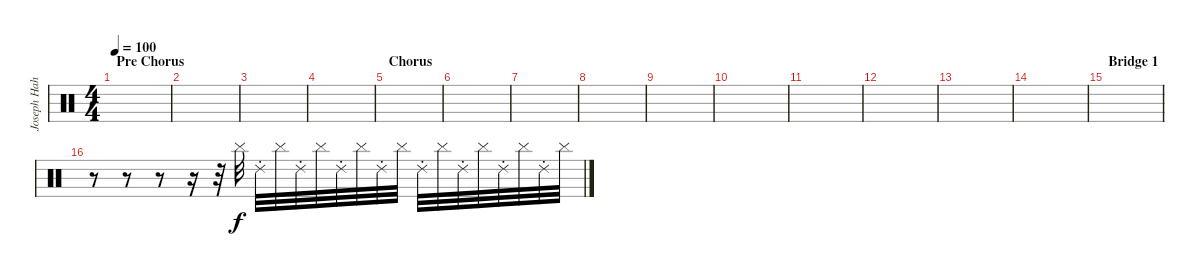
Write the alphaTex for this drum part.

\track ("Joseph Hahn (Sampler 3)" "Joseph Hah") {instrument percussion}
\staff {score}
\articulation defaults
\ts (4 4)
\section ("" "Pre Chorus")
\tempo 100
\clef neutral
\ks c
|
|
|
|
\section ("" "Chorus")
|
|
|
|
|
|
|
|
|
|
\section ("" "Bridge 1")
|
r.8 r.8 r.8 r.16 r.32 "Cymbal (hit)".32 "Ride (choke) 2".32 "Cymbal (hit)".32 "Ride (choke) 2".32 "Cymbal (hit)".32 "Ride (choke) 2".32 "Cymbal (hit)".32 "Ride (choke) 2".32 "Cymbal (hit)".32 "Ride (choke) 2".32 "Cymbal (hit)".32 "Ride (choke) 2".32 "Cymbal (hit)".32 "Ride (choke) 2".32 "Cymbal (hit)".32 "Ride (choke) 2".32 "Cymbal (hit)".32
